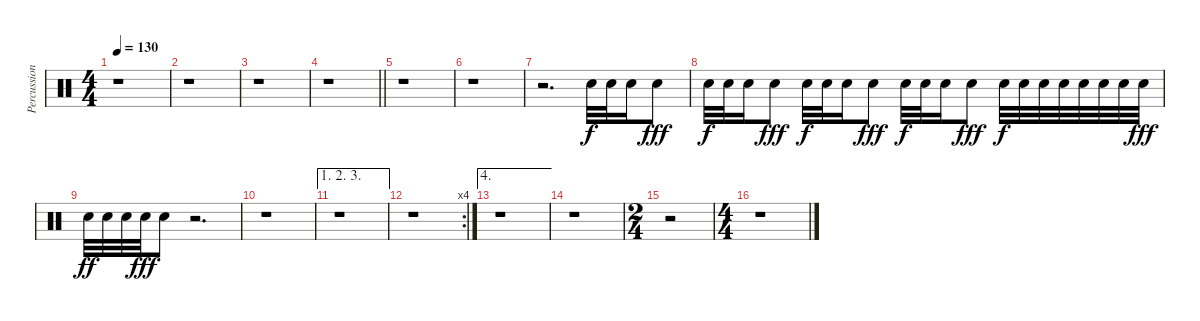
\track ("Percussions" "Percussion") {instrument percussion}
\staff {score}
\articulation defaults
\ts (4 4)
\tempo 130
\clef neutral
\ks c
r.1{dy f} |
r.1 |
r.1 |
\barLineRight lightlight
r.1 |
r.1 |
r.1 |
r.2{d} "Snare (hit) 2".32 "Snare (hit) 2".32 "Snare (hit) 2".16 "Snare (hit) 2".8{dy fff} |
"Snare (hit) 2".32{dy f} "Snare (hit) 2".32 "Snare (hit) 2".16 "Snare (hit) 2".8{dy fff} "Snare (hit) 2".32{dy f} "Snare (hit) 2".32 "Snare (hit) 2".16 "Snare (hit) 2".8{dy fff} "Snare (hit) 2".32{dy f} "Snare (hit) 2".32 "Snare (hit) 2".16 "Snare (hit) 2".8{dy fff} "Snare (hit) 2".32{dy f} "Snare (hit) 2".32 "Snare (hit) 2".32 "Snare (hit) 2".32 "Snare (hit) 2".32 "Snare (hit) 2".32 "Snare (hit) 2".32 "Snare (hit) 2".32{dy fff} |
"Snare (hit) 2".32{dy ff} "Snare (hit) 2".32 "Snare (hit) 2".32 "Snare (hit) 2".32{dy fff} "Snare (hit) 2".8 r.2{d} |
r.1 |
\ae (1 2 3)
r.1 |
\rc 4
r.1 |
\ae 4
r.1 |
r.1 |
\ts (2 4)
r.2 |
\ts (4 4)
r.1
